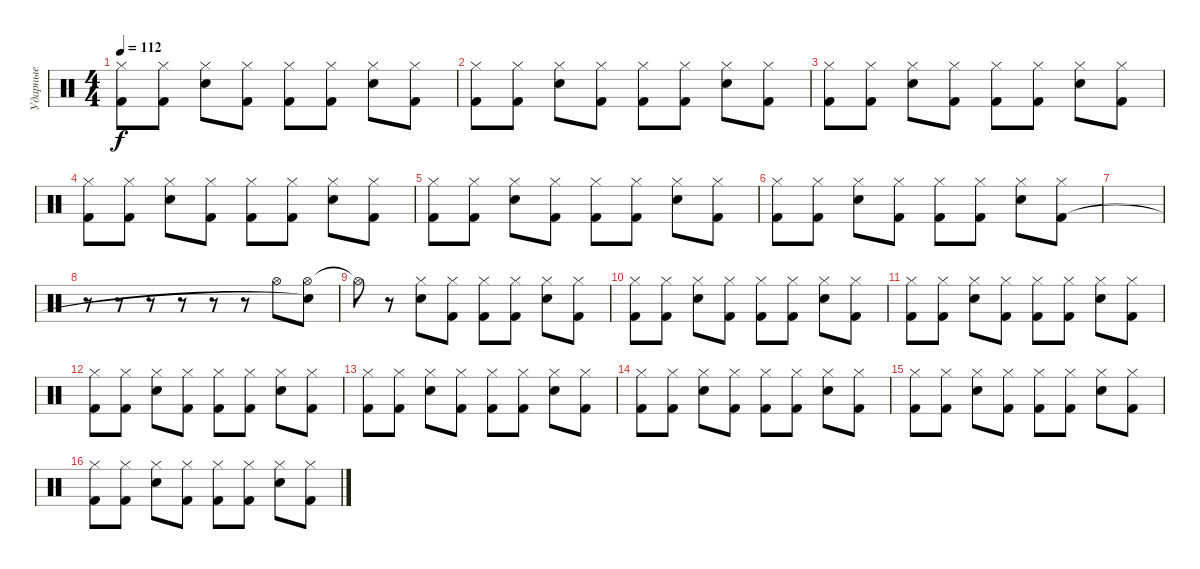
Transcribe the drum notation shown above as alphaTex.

\track ("Ударные" "Ударные") {instrument percussion}
\staff {score}
\articulation defaults
\ts (4 4)
\tempo 112
\clef neutral
\ks c
("Hi-Hat (closed)" "Kick (hit) 2").8{dy f} ("Hi-Hat (closed)" "Kick (hit) 2").8 ("Hi-Hat (closed)" "Snare (hit) 2").8 ("Hi-Hat (closed)" "Kick (hit) 2").8 ("Hi-Hat (closed)" "Kick (hit) 2").8 ("Hi-Hat (closed)" "Kick (hit) 2").8 ("Hi-Hat (closed)" "Snare (hit) 2").8 ("Hi-Hat (closed)" "Kick (hit) 2").8 |
("Hi-Hat (closed)" "Kick (hit) 2").8 ("Hi-Hat (closed)" "Kick (hit) 2").8 ("Hi-Hat (closed)" "Snare (hit) 2").8 ("Hi-Hat (closed)" "Kick (hit) 2").8 ("Hi-Hat (closed)" "Kick (hit) 2").8 ("Hi-Hat (closed)" "Kick (hit) 2").8 ("Hi-Hat (closed)" "Snare (hit) 2").8 ("Hi-Hat (closed)" "Kick (hit) 2").8 |
("Hi-Hat (closed)" "Kick (hit) 2").8 ("Hi-Hat (closed)" "Kick (hit) 2").8 ("Hi-Hat (closed)" "Snare (hit) 2").8 ("Hi-Hat (closed)" "Kick (hit) 2").8 ("Hi-Hat (closed)" "Kick (hit) 2").8 ("Hi-Hat (closed)" "Kick (hit) 2").8 ("Hi-Hat (closed)" "Snare (hit) 2").8 ("Hi-Hat (closed)" "Kick (hit) 2").8 |
("Hi-Hat (closed)" "Kick (hit) 2").8 ("Hi-Hat (closed)" "Kick (hit) 2").8 ("Hi-Hat (closed)" "Snare (hit) 2").8 ("Hi-Hat (closed)" "Kick (hit) 2").8 ("Hi-Hat (closed)" "Kick (hit) 2").8 ("Hi-Hat (closed)" "Kick (hit) 2").8 ("Hi-Hat (closed)" "Snare (hit) 2").8 ("Hi-Hat (closed)" "Kick (hit) 2").8 |
("Hi-Hat (closed)" "Kick (hit) 2").8 ("Hi-Hat (closed)" "Kick (hit) 2").8 ("Hi-Hat (closed)" "Snare (hit) 2").8 ("Hi-Hat (closed)" "Kick (hit) 2").8 ("Hi-Hat (closed)" "Kick (hit) 2").8 ("Hi-Hat (closed)" "Kick (hit) 2").8 ("Hi-Hat (closed)" "Snare (hit) 2").8 ("Hi-Hat (closed)" "Kick (hit) 2").8 |
("Hi-Hat (closed)" "Kick (hit) 2").8 ("Hi-Hat (closed)" "Kick (hit) 2").8 ("Hi-Hat (closed)" "Snare (hit) 2").8 ("Hi-Hat (closed)" "Kick (hit) 2").8 ("Hi-Hat (closed)" "Kick (hit) 2").8 ("Hi-Hat (closed)" "Kick (hit) 2").8 ("Hi-Hat (closed)" "Snare (hit) 2").8 ("Hi-Hat (closed)" "Kick (hit) 2").8 |
|
r.8 r.8 r.8 r.8 r.8 r.8 "Hi-Hat (open)".8 ("Hi-Hat (open)" "Snare (hit)"{t}).8 |
"Hi-Hat (open)"{t}.8 r.8 ("Hi-Hat (closed)" "Snare (hit) 2").8 ("Hi-Hat (closed)" "Kick (hit) 2").8 ("Hi-Hat (closed)" "Kick (hit) 2").8 ("Hi-Hat (closed)" "Kick (hit) 2").8 ("Hi-Hat (closed)" "Snare (hit) 2").8 ("Hi-Hat (closed)" "Kick (hit) 2").8 |
("Hi-Hat (closed)" "Kick (hit) 2").8 ("Hi-Hat (closed)" "Kick (hit) 2").8 ("Hi-Hat (closed)" "Snare (hit) 2").8 ("Hi-Hat (closed)" "Kick (hit) 2").8 ("Hi-Hat (closed)" "Kick (hit) 2").8 ("Hi-Hat (closed)" "Kick (hit) 2").8 ("Hi-Hat (closed)" "Snare (hit) 2").8 ("Hi-Hat (closed)" "Kick (hit) 2").8 |
("Hi-Hat (closed)" "Kick (hit) 2").8 ("Hi-Hat (closed)" "Kick (hit) 2").8 ("Hi-Hat (closed)" "Snare (hit) 2").8 ("Hi-Hat (closed)" "Kick (hit) 2").8 ("Hi-Hat (closed)" "Kick (hit) 2").8 ("Hi-Hat (closed)" "Kick (hit) 2").8 ("Hi-Hat (closed)" "Snare (hit) 2").8 ("Hi-Hat (closed)" "Kick (hit) 2").8 |
("Hi-Hat (closed)" "Kick (hit) 2").8 ("Hi-Hat (closed)" "Kick (hit) 2").8 ("Hi-Hat (closed)" "Snare (hit) 2").8 ("Hi-Hat (closed)" "Kick (hit) 2").8 ("Hi-Hat (closed)" "Kick (hit) 2").8 ("Hi-Hat (closed)" "Kick (hit) 2").8 ("Hi-Hat (closed)" "Snare (hit) 2").8 ("Hi-Hat (closed)" "Kick (hit) 2").8 |
("Hi-Hat (closed)" "Kick (hit) 2").8 ("Hi-Hat (closed)" "Kick (hit) 2").8 ("Hi-Hat (closed)" "Snare (hit) 2").8 ("Hi-Hat (closed)" "Kick (hit) 2").8 ("Hi-Hat (closed)" "Kick (hit) 2").8 ("Hi-Hat (closed)" "Kick (hit) 2").8 ("Hi-Hat (closed)" "Snare (hit) 2").8 ("Hi-Hat (closed)" "Kick (hit) 2").8 |
("Hi-Hat (closed)" "Kick (hit) 2").8 ("Hi-Hat (closed)" "Kick (hit) 2").8 ("Hi-Hat (closed)" "Snare (hit) 2").8 ("Hi-Hat (closed)" "Kick (hit) 2").8 ("Hi-Hat (closed)" "Kick (hit) 2").8 ("Hi-Hat (closed)" "Kick (hit) 2").8 ("Hi-Hat (closed)" "Snare (hit) 2").8 ("Hi-Hat (closed)" "Kick (hit) 2").8 |
("Hi-Hat (closed)" "Kick (hit) 2").8 ("Hi-Hat (closed)" "Kick (hit) 2").8 ("Hi-Hat (closed)" "Snare (hit) 2").8 ("Hi-Hat (closed)" "Kick (hit) 2").8 ("Hi-Hat (closed)" "Kick (hit) 2").8 ("Hi-Hat (closed)" "Kick (hit) 2").8 ("Hi-Hat (closed)" "Snare (hit) 2").8 ("Hi-Hat (closed)" "Kick (hit) 2").8 |
("Hi-Hat (closed)" "Kick (hit) 2").8 ("Hi-Hat (closed)" "Kick (hit) 2").8 ("Hi-Hat (closed)" "Snare (hit) 2").8 ("Hi-Hat (closed)" "Kick (hit) 2").8 ("Hi-Hat (closed)" "Kick (hit) 2").8 ("Hi-Hat (closed)" "Kick (hit) 2").8 ("Hi-Hat (closed)" "Snare (hit) 2").8 ("Hi-Hat (closed)" "Kick (hit) 2").8
